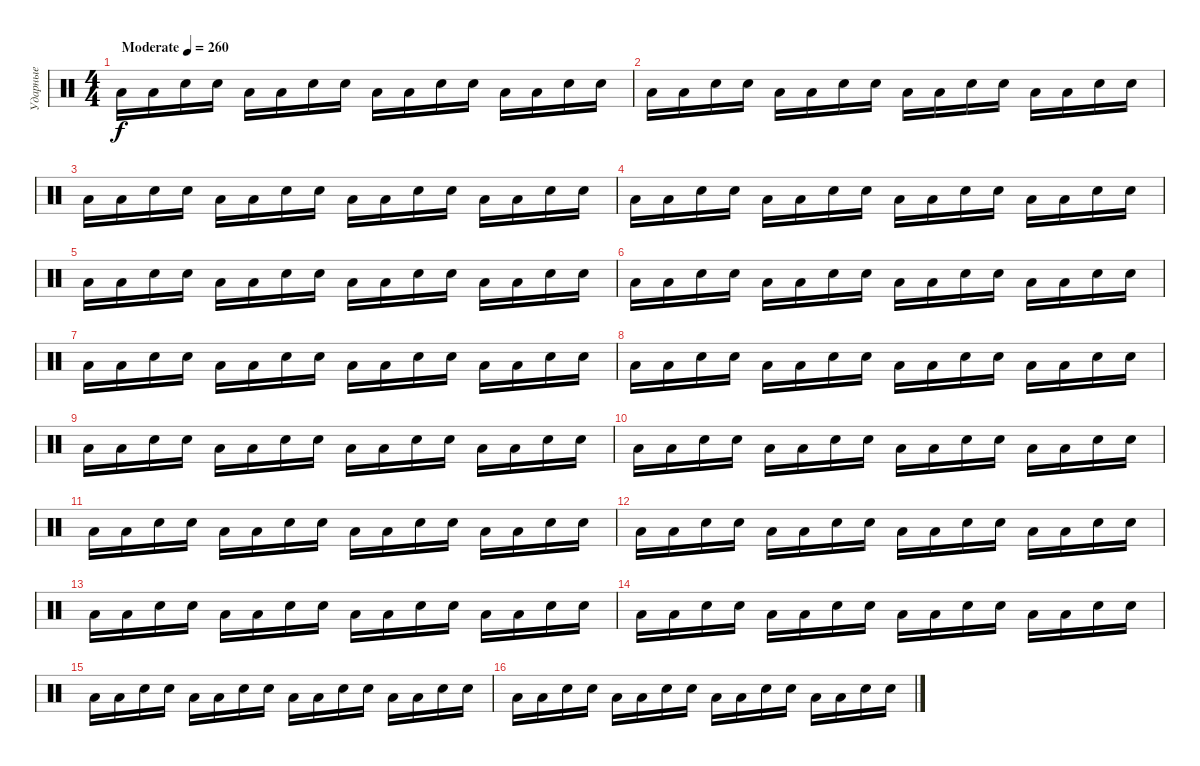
\track ("Ударные" "Ударные") {instrument percussion}
\staff {score}
\articulation defaults
\ts (4 4)
\tempo (260 "Moderate")
\clef neutral
\ks c "Low Floor Tom (hit)".16{dy f} "Low Floor Tom (hit)".16 "Electric Snare (hit)".16 "Electric Snare (hit)".16 "Low Floor Tom (hit)".16 "Low Floor Tom (hit)".16 "Electric Snare (hit)".16 "Electric Snare (hit)".16 "Low Floor Tom (hit)".16 "Low Floor Tom (hit)".16 "Electric Snare (hit)".16 "Electric Snare (hit)".16 "Low Floor Tom (hit)".16 "Low Floor Tom (hit)".16 "Electric Snare (hit)".16 "Electric Snare (hit)".16
|
"Low Floor Tom (hit)".16 "Low Floor Tom (hit)".16 "Electric Snare (hit)".16 "Electric Snare (hit)".16 "Low Floor Tom (hit)".16 "Low Floor Tom (hit)".16 "Electric Snare (hit)".16 "Electric Snare (hit)".16 "Low Floor Tom (hit)".16 "Low Floor Tom (hit)".16 "Electric Snare (hit)".16 "Electric Snare (hit)".16 "Low Floor Tom (hit)".16 "Low Floor Tom (hit)".16 "Electric Snare (hit)".16 "Electric Snare (hit)".16 |
"Low Floor Tom (hit)".16 "Low Floor Tom (hit)".16 "Electric Snare (hit)".16 "Electric Snare (hit)".16 "Low Floor Tom (hit)".16 "Low Floor Tom (hit)".16 "Electric Snare (hit)".16 "Electric Snare (hit)".16 "Low Floor Tom (hit)".16 "Low Floor Tom (hit)".16 "Electric Snare (hit)".16 "Electric Snare (hit)".16 "Low Floor Tom (hit)".16 "Low Floor Tom (hit)".16 "Electric Snare (hit)".16 "Electric Snare (hit)".16 |
"Low Floor Tom (hit)".16 "Low Floor Tom (hit)".16 "Electric Snare (hit)".16 "Electric Snare (hit)".16 "Low Floor Tom (hit)".16 "Low Floor Tom (hit)".16 "Electric Snare (hit)".16 "Electric Snare (hit)".16 "Low Floor Tom (hit)".16 "Low Floor Tom (hit)".16 "Electric Snare (hit)".16 "Electric Snare (hit)".16 "Low Floor Tom (hit)".16 "Low Floor Tom (hit)".16 "Electric Snare (hit)".16 "Electric Snare (hit)".16 |
"Low Floor Tom (hit)".16 "Low Floor Tom (hit)".16 "Electric Snare (hit)".16 "Electric Snare (hit)".16 "Low Floor Tom (hit)".16 "Low Floor Tom (hit)".16 "Electric Snare (hit)".16 "Electric Snare (hit)".16 "Low Floor Tom (hit)".16 "Low Floor Tom (hit)".16 "Electric Snare (hit)".16 "Electric Snare (hit)".16 "Low Floor Tom (hit)".16 "Low Floor Tom (hit)".16 "Electric Snare (hit)".16 "Electric Snare (hit)".16 |
"Low Floor Tom (hit)".16 "Low Floor Tom (hit)".16 "Electric Snare (hit)".16 "Electric Snare (hit)".16 "Low Floor Tom (hit)".16 "Low Floor Tom (hit)".16 "Electric Snare (hit)".16 "Electric Snare (hit)".16 "Low Floor Tom (hit)".16 "Low Floor Tom (hit)".16 "Electric Snare (hit)".16 "Electric Snare (hit)".16 "Low Floor Tom (hit)".16 "Low Floor Tom (hit)".16 "Electric Snare (hit)".16 "Electric Snare (hit)".16 |
"Low Floor Tom (hit)".16 "Low Floor Tom (hit)".16 "Electric Snare (hit)".16 "Electric Snare (hit)".16 "Low Floor Tom (hit)".16 "Low Floor Tom (hit)".16 "Electric Snare (hit)".16 "Electric Snare (hit)".16 "Low Floor Tom (hit)".16 "Low Floor Tom (hit)".16 "Electric Snare (hit)".16 "Electric Snare (hit)".16 "Low Floor Tom (hit)".16 "Low Floor Tom (hit)".16 "Electric Snare (hit)".16 "Electric Snare (hit)".16 |
"Low Floor Tom (hit)".16 "Low Floor Tom (hit)".16 "Electric Snare (hit)".16 "Electric Snare (hit)".16 "Low Floor Tom (hit)".16 "Low Floor Tom (hit)".16 "Electric Snare (hit)".16 "Electric Snare (hit)".16 "Low Floor Tom (hit)".16 "Low Floor Tom (hit)".16 "Electric Snare (hit)".16 "Electric Snare (hit)".16 "Low Floor Tom (hit)".16 "Low Floor Tom (hit)".16 "Electric Snare (hit)".16 "Electric Snare (hit)".16 |
"Low Floor Tom (hit)".16 "Low Floor Tom (hit)".16 "Electric Snare (hit)".16 "Electric Snare (hit)".16 "Low Floor Tom (hit)".16 "Low Floor Tom (hit)".16 "Electric Snare (hit)".16 "Electric Snare (hit)".16 "Low Floor Tom (hit)".16 "Low Floor Tom (hit)".16 "Electric Snare (hit)".16 "Electric Snare (hit)".16 "Low Floor Tom (hit)".16 "Low Floor Tom (hit)".16 "Electric Snare (hit)".16 "Electric Snare (hit)".16 |
"Low Floor Tom (hit)".16 "Low Floor Tom (hit)".16 "Electric Snare (hit)".16 "Electric Snare (hit)".16 "Low Floor Tom (hit)".16 "Low Floor Tom (hit)".16 "Electric Snare (hit)".16 "Electric Snare (hit)".16 "Low Floor Tom (hit)".16 "Low Floor Tom (hit)".16 "Electric Snare (hit)".16 "Electric Snare (hit)".16 "Low Floor Tom (hit)".16 "Low Floor Tom (hit)".16 "Electric Snare (hit)".16 "Electric Snare (hit)".16 |
"Low Floor Tom (hit)".16 "Low Floor Tom (hit)".16 "Electric Snare (hit)".16 "Electric Snare (hit)".16 "Low Floor Tom (hit)".16 "Low Floor Tom (hit)".16 "Electric Snare (hit)".16 "Electric Snare (hit)".16 "Low Floor Tom (hit)".16 "Low Floor Tom (hit)".16 "Electric Snare (hit)".16 "Electric Snare (hit)".16 "Low Floor Tom (hit)".16 "Low Floor Tom (hit)".16 "Electric Snare (hit)".16 "Electric Snare (hit)".16 |
"Low Floor Tom (hit)".16 "Low Floor Tom (hit)".16 "Electric Snare (hit)".16 "Electric Snare (hit)".16 "Low Floor Tom (hit)".16 "Low Floor Tom (hit)".16 "Electric Snare (hit)".16 "Electric Snare (hit)".16 "Low Floor Tom (hit)".16 "Low Floor Tom (hit)".16 "Electric Snare (hit)".16 "Electric Snare (hit)".16 "Low Floor Tom (hit)".16 "Low Floor Tom (hit)".16 "Electric Snare (hit)".16 "Electric Snare (hit)".16 |
"Low Floor Tom (hit)".16 "Low Floor Tom (hit)".16 "Electric Snare (hit)".16 "Electric Snare (hit)".16 "Low Floor Tom (hit)".16 "Low Floor Tom (hit)".16 "Electric Snare (hit)".16 "Electric Snare (hit)".16 "Low Floor Tom (hit)".16 "Low Floor Tom (hit)".16 "Electric Snare (hit)".16 "Electric Snare (hit)".16 "Low Floor Tom (hit)".16 "Low Floor Tom (hit)".16 "Electric Snare (hit)".16 "Electric Snare (hit)".16 |
"Low Floor Tom (hit)".16 "Low Floor Tom (hit)".16 "Electric Snare (hit)".16 "Electric Snare (hit)".16 "Low Floor Tom (hit)".16 "Low Floor Tom (hit)".16 "Electric Snare (hit)".16 "Electric Snare (hit)".16 "Low Floor Tom (hit)".16 "Low Floor Tom (hit)".16 "Electric Snare (hit)".16 "Electric Snare (hit)".16 "Low Floor Tom (hit)".16 "Low Floor Tom (hit)".16 "Electric Snare (hit)".16 "Electric Snare (hit)".16 |
"Low Floor Tom (hit)".16 "Low Floor Tom (hit)".16 "Electric Snare (hit)".16 "Electric Snare (hit)".16 "Low Floor Tom (hit)".16 "Low Floor Tom (hit)".16 "Electric Snare (hit)".16 "Electric Snare (hit)".16 "Low Floor Tom (hit)".16 "Low Floor Tom (hit)".16 "Electric Snare (hit)".16 "Electric Snare (hit)".16 "Low Floor Tom (hit)".16 "Low Floor Tom (hit)".16 "Electric Snare (hit)".16 "Electric Snare (hit)".16 |
"Low Floor Tom (hit)".16 "Low Floor Tom (hit)".16 "Electric Snare (hit)".16 "Electric Snare (hit)".16 "Low Floor Tom (hit)".16 "Low Floor Tom (hit)".16 "Electric Snare (hit)".16 "Electric Snare (hit)".16 "Low Floor Tom (hit)".16 "Low Floor Tom (hit)".16 "Electric Snare (hit)".16 "Electric Snare (hit)".16 "Low Floor Tom (hit)".16 "Low Floor Tom (hit)".16 "Electric Snare (hit)".16 "Electric Snare (hit)".16
